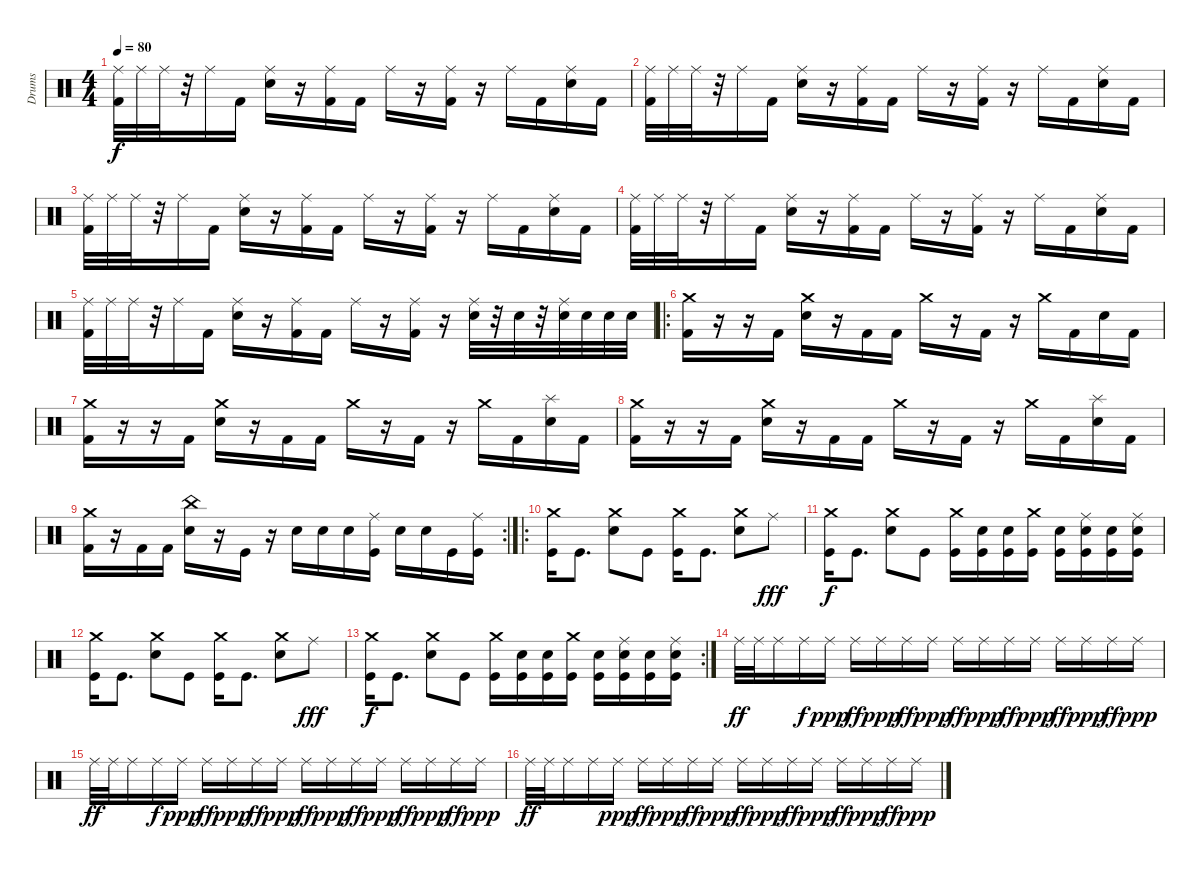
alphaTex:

\track ("Drums" "Drums") {instrument percussion}
\staff {score}
\articulation defaults
\ts (4 4)
\tempo 80
\clef neutral
\ks c
("Ride (middle)" "Kick (hit) 2").32{dy f} "Ride (middle)".32 "Ride (middle)".32 r.32 "Ride (middle)".16 "Kick (hit) 2".16 ("Ride (middle)" "Snare (hit) 2").16 r.16 ("Ride (middle)" "Kick (hit) 2").16 "Kick (hit) 2".16 "Ride (middle)".16 r.16 ("Ride (middle)" "Kick (hit) 2").16 r.16 "Ride (middle)".16 "Kick (hit) 2".16 ("Ride (middle)" "Snare (hit) 2").16 "Kick (hit) 2".16 |
("Ride (middle)" "Kick (hit) 2").32 "Ride (middle)".32 "Ride (middle)".32 r.32 "Ride (middle)".16 "Kick (hit) 2".16 ("Ride (middle)" "Snare (hit) 2").16 r.16 ("Ride (middle)" "Kick (hit) 2").16 "Kick (hit) 2".16 "Ride (middle)".16 r.16 ("Ride (middle)" "Kick (hit) 2").16 r.16 "Ride (middle)".16 "Kick (hit) 2".16 ("Ride (middle)" "Snare (hit) 2").16 "Kick (hit) 2".16 |
("Ride (middle)" "Kick (hit) 2").32 "Ride (middle)".32 "Ride (middle)".32 r.32 "Ride (middle)".16 "Kick (hit) 2".16 ("Ride (middle)" "Snare (hit) 2").16 r.16 ("Ride (middle)" "Kick (hit) 2").16 "Kick (hit) 2".16 "Ride (middle)".16 r.16 ("Ride (middle)" "Kick (hit) 2").16 r.16 "Ride (middle)".16 "Kick (hit) 2".16 ("Ride (middle)" "Snare (hit) 2").16 "Kick (hit) 2".16 |
("Ride (middle)" "Kick (hit) 2").32 "Ride (middle)".32 "Ride (middle)".32 r.32 "Ride (middle)".16 "Kick (hit) 2".16 ("Ride (middle)" "Snare (hit) 2").16 r.16 ("Ride (middle)" "Kick (hit) 2").16 "Kick (hit) 2".16 "Ride (middle)".16 r.16 ("Ride (middle)" "Kick (hit) 2").16 r.16 "Ride (middle)".16 "Kick (hit) 2".16 ("Ride (middle)" "Snare (hit) 2").16 "Kick (hit) 2".16 |
("Ride (middle)" "Kick (hit) 2").32 "Ride (middle)".32 "Ride (middle)".32 r.32 "Ride (middle)".16 "Kick (hit) 2".16 ("Ride (middle)" "Snare (hit) 2").16 r.16 ("Ride (middle)" "Kick (hit) 2").16 "Kick (hit) 2".16 "Ride (middle)".16 r.16 ("Ride (middle)" "Kick (hit) 2").16 r.16 ("Ride (middle)" "Snare (hit) 2").32 r.32 "Snare (hit) 2".32 r.32 ("Ride (middle)" "Snare (hit) 2").32 "Snare (hit) 2".32 "Snare (hit) 2".32 "Snare (hit) 2".32 |
\ro
("Crash medium (hit)" "Kick (hit) 2").16 r.16 r.16 "Kick (hit) 2".16 ("Crash medium (hit)" "Snare (hit) 2").16 r.16 "Kick (hit) 2".16 "Kick (hit) 2".16 "Crash medium (hit)".16 r.16 "Kick (hit) 2".16 r.16 "Crash medium (hit)".16 "Kick (hit) 2".16 "Snare (hit) 2".16 "Kick (hit) 2".16 |
("Crash medium (hit)" "Kick (hit) 2").16 r.16 r.16 "Kick (hit) 2".16 ("Crash medium (hit)" "Snare (hit) 2").16 r.16 "Kick (hit) 2".16 "Kick (hit) 2".16 "Crash medium (hit)".16 r.16 "Kick (hit) 2".16 r.16 "Crash medium (hit)".16 "Kick (hit) 2".16 ("Splash (hit)" "Snare (hit) 2").16 "Kick (hit) 2".16 |
("Crash medium (hit)" "Kick (hit) 2").16 r.16 r.16 "Kick (hit) 2".16 ("Crash medium (hit)" "Snare (hit) 2").16 r.16 "Kick (hit) 2".16 "Kick (hit) 2".16 "Crash medium (hit)".16 r.16 "Kick (hit) 2".16 r.16 "Crash medium (hit)".16 "Kick (hit) 2".16 ("Splash (hit)" "Snare (hit) 2").16 "Kick (hit) 2".16 |
\rc 2
("Crash medium (hit)" "Kick (hit) 2").16 r.16 "Kick (hit) 2".16 "Kick (hit) 2".16 ("China (hit)" "Snare (hit) 2").16 r.16 "Kick (hit)".16 r.16 "Snare (hit) 2".16 "Snare (hit) 2".16 "Snare (hit) 2".16 ("Ride (middle)" "Kick (hit)").16 "Snare (hit) 2".16 "Snare (hit) 2".16 "Kick (hit)".16 ("Ride (middle)" "Kick (hit)").16 |
\ro
("Crash medium (hit)" "Kick (hit)").16 "Kick (hit)".8{d} ("Crash medium (hit)" "Snare (hit) 2").8 "Kick (hit)".8 ("Crash medium (hit)" "Kick (hit)").16 "Kick (hit)".8{d} ("Crash medium (hit)" "Snare (hit) 2").8 "Ride (middle)".8{dy fff} |
("Crash medium (hit)" "Kick (hit)").16{dy f} "Kick (hit)".8{d} ("Crash medium (hit)" "Snare (hit) 2").8 "Kick (hit)".8 ("Crash medium (hit)" "Kick (hit)").16 ("Snare (hit) 2" "Kick (hit)").16 ("Snare (hit) 2" "Kick (hit)").16 ("Crash medium (hit)" "Kick (hit)").16 ("Snare (hit) 2" "Kick (hit)").16 ("Ride (middle)" "Snare (hit) 2" "Kick (hit)").16 ("Snare (hit) 2" "Kick (hit)").16 ("Ride (middle)" "Snare (hit) 2" "Kick (hit)").16 |
("Crash medium (hit)" "Kick (hit)").16 "Kick (hit)".8{d} ("Crash medium (hit)" "Snare (hit) 2").8 "Kick (hit)".8 ("Crash medium (hit)" "Kick (hit)").16 "Kick (hit)".8{d} ("Crash medium (hit)" "Snare (hit) 2").8 "Ride (middle)".8{dy fff} |
\rc 2
("Crash medium (hit)" "Kick (hit)").16{dy f} "Kick (hit)".8{d} ("Crash medium (hit)" "Snare (hit) 2").8 "Kick (hit)".8 ("Crash medium (hit)" "Kick (hit)").16 ("Snare (hit) 2" "Kick (hit)").16 ("Snare (hit) 2" "Kick (hit)").16 ("Crash medium (hit)" "Kick (hit)").16 ("Snare (hit) 2" "Kick (hit)").16 ("Ride (middle)" "Snare (hit) 2" "Kick (hit)").16 ("Snare (hit) 2" "Kick (hit)").16 ("Ride (middle)" "Snare (hit) 2" "Kick (hit)").16 |
"Ride (middle)".32{dy ff} "Ride (middle)".32 "Ride (middle)".16 "Ride (middle)".16{dy f} "Ride (middle)".16{dy ppp} "Ride (middle)".16{dy ff} "Ride (middle)".16{dy ppp} "Ride (middle)".16{dy ff} "Ride (middle)".16{dy ppp} "Ride (middle)".16{dy ff} "Ride (middle)".16{dy ppp} "Ride (middle)".16{dy ff} "Ride (middle)".16{dy ppp} "Ride (middle)".16{dy ff} "Ride (middle)".16{dy ppp} "Ride (middle)".16{dy ff} "Ride (middle)".16{dy ppp} |
"Ride (middle)".32{dy ff} "Ride (middle)".32 "Ride (middle)".16 "Ride (middle)".16{dy f} "Ride (middle)".16{dy ppp} "Ride (middle)".16{dy ff} "Ride (middle)".16{dy ppp} "Ride (middle)".16{dy ff} "Ride (middle)".16{dy ppp} "Ride (middle)".16{dy ff} "Ride (middle)".16{dy ppp} "Ride (middle)".16{dy ff} "Ride (middle)".16{dy ppp} "Ride (middle)".16{dy ff} "Ride (middle)".16{dy ppp} "Ride (middle)".16{dy ff} "Ride (middle)".16{dy ppp} |
"Ride (middle)".32{dy ff} "Ride (middle)".32 "Ride (middle)".16 "Ride (middle)".16 "Ride (middle)".16{dy ppp} "Ride (middle)".16{dy ff} "Ride (middle)".16{dy ppp} "Ride (middle)".16{dy ff} "Ride (middle)".16{dy ppp} "Ride (middle)".16{dy ff} "Ride (middle)".16{dy ppp} "Ride (middle)".16{dy ff} "Ride (middle)".16{dy ppp} "Ride (middle)".16{dy ff} "Ride (middle)".16{dy ppp} "Ride (middle)".16{dy ff} "Ride (middle)".16{dy ppp}
